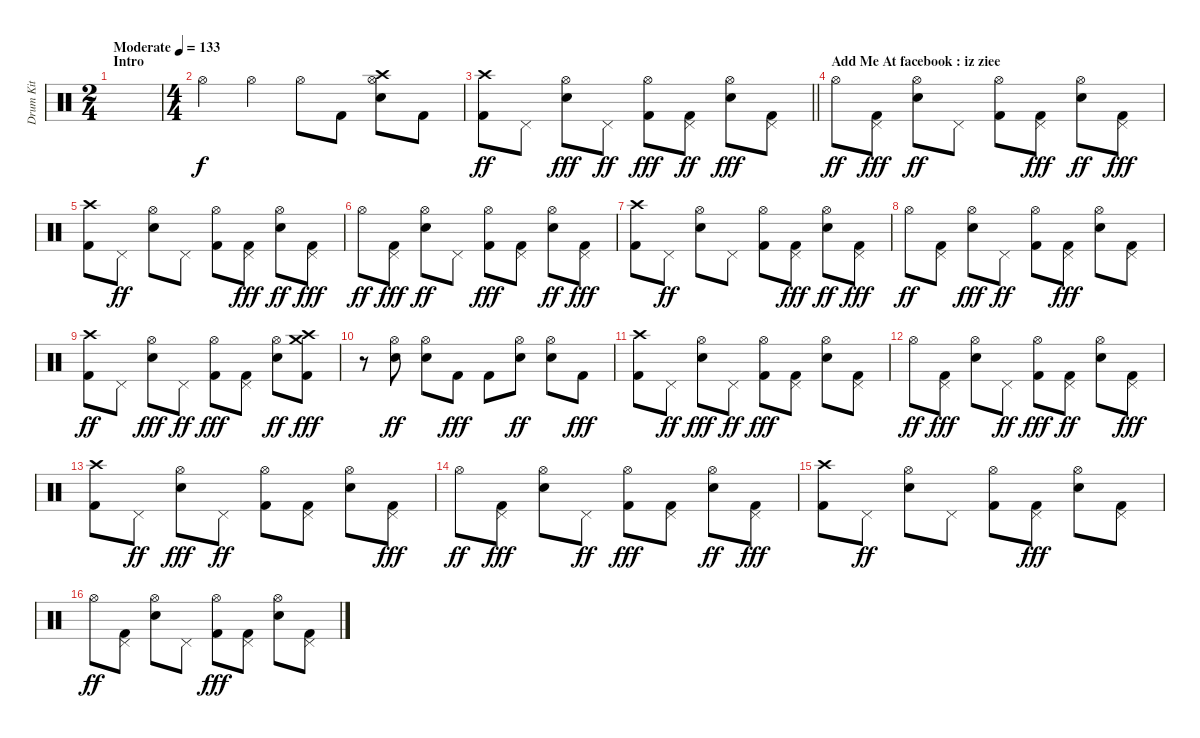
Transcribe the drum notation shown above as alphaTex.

\track ("Drum Kit" "Drum Kit") {instrument percussion}
\staff {score}
\articulation defaults
\ts (2 4)
\section ("" "Intro")
\tempo (133 "Moderate")
\clef neutral
\ks c
|
\ts (4 4)
"Hi-Hat (open)".4 "Hi-Hat (open)".4 "Hi-Hat (open)".8 "Kick (hit) 2".8 ("Hi-Hat (open)" "Electric Snare (hit)" "Crash high (hit)").8 "Kick (hit) 2".8 |
\barLineRight lightlight
("Kick (hit) 2" "Crash high (hit)").8{dy ff} "Pedal Hi-Hat (hit)".8 ("Hi-Hat (open)" "Electric Snare (hit)").8{dy fff} "Pedal Hi-Hat (hit)".8{dy ff} ("Hi-Hat (open)" "Kick (hit) 2").8{dy fff} ("Kick (hit) 2" "Pedal Hi-Hat (hit)").8{dy ff} ("Hi-Hat (open)" "Electric Snare (hit)").8{dy fff} ("Pedal Hi-Hat (hit)" "Kick (hit) 2").8 |
\section ("" "Add Me At facebook : iz ziee")
"Hi-Hat (open)".8{dy ff} ("Pedal Hi-Hat (hit)" "Kick (hit) 2").8{dy fff} ("Electric Snare (hit)" "Hi-Hat (open)").8{dy ff} "Pedal Hi-Hat (hit)".8 ("Kick (hit) 2" "Hi-Hat (open)").8 ("Pedal Hi-Hat (hit)" "Kick (hit) 2").8{dy fff} ("Electric Snare (hit)" "Hi-Hat (open)").8{dy ff} ("Pedal Hi-Hat (hit)" "Kick (hit) 2").8{dy fff} |
("Crash high (hit)" "Kick (hit) 2").8 "Pedal Hi-Hat (hit)".8{dy ff} ("Electric Snare (hit)" "Hi-Hat (open)").8 "Pedal Hi-Hat (hit)".8 ("Kick (hit) 2" "Hi-Hat (open)").8 ("Pedal Hi-Hat (hit)" "Kick (hit) 2").8{dy fff} ("Electric Snare (hit)" "Hi-Hat (open)").8{dy ff} ("Pedal Hi-Hat (hit)" "Kick (hit) 2").8{dy fff} |
"Hi-Hat (open)".8{dy ff} ("Pedal Hi-Hat (hit)" "Kick (hit) 2").8{dy fff} ("Electric Snare (hit)" "Hi-Hat (open)").8{dy ff} "Pedal Hi-Hat (hit)".8 ("Hi-Hat (open)" "Kick (hit) 2").8{dy fff} ("Pedal Hi-Hat (hit)" "Kick (hit) 2").8 ("Electric Snare (hit)" "Hi-Hat (open)").8{dy ff} ("Pedal Hi-Hat (hit)" "Kick (hit) 2").8{dy fff} |
("Crash high (hit)" "Kick (hit) 2").8 "Pedal Hi-Hat (hit)".8{dy ff} ("Electric Snare (hit)" "Hi-Hat (open)").8 "Pedal Hi-Hat (hit)".8 ("Kick (hit) 2" "Hi-Hat (open)").8 ("Pedal Hi-Hat (hit)" "Kick (hit) 2").8{dy fff} ("Electric Snare (hit)" "Hi-Hat (open)").8{dy ff} ("Pedal Hi-Hat (hit)" "Kick (hit) 2").8{dy fff} |
"Hi-Hat (open)".8{dy ff} ("Kick (hit) 2" "Pedal Hi-Hat (hit)").8 ("Hi-Hat (open)" "Electric Snare (hit)").8{dy fff} "Pedal Hi-Hat (hit)".8{dy ff} ("Kick (hit) 2" "Hi-Hat (open)").8 ("Pedal Hi-Hat (hit)" "Kick (hit) 2").8{dy fff} ("Hi-Hat (open)" "Electric Snare (hit)").8 ("Pedal Hi-Hat (hit)" "Kick (hit) 2").8 |
("Kick (hit) 2" "Crash high (hit)").8{dy ff} "Pedal Hi-Hat (hit)".8 ("Hi-Hat (open)" "Electric Snare (hit)").8{dy fff} "Pedal Hi-Hat (hit)".8{dy ff} ("Hi-Hat (open)" "Kick (hit) 2").8{dy fff} ("Pedal Hi-Hat (hit)" "Kick (hit) 2").8 ("Electric Snare (hit)" "Hi-Hat (open)").8{dy ff} ("Crash medium (hit)" "Crash high (hit)" "Kick (hit) 2").8{dy fff} |
r.8 ("Electric Snare (hit)" "Hi-Hat (open)").8{dy ff} ("Electric Snare (hit)" "Hi-Hat (open)").8 "Kick (hit) 2".8{dy fff} "Kick (hit) 2".8 ("Electric Snare (hit)" "Hi-Hat (open)").8{dy ff} ("Electric Snare (hit)" "Hi-Hat (open)").8 "Kick (hit) 2".8{dy fff} |
("Crash high (hit)" "Kick (hit) 2").8 "Pedal Hi-Hat (hit)".8{dy ff} ("Hi-Hat (open)" "Electric Snare (hit)").8{dy fff} "Pedal Hi-Hat (hit)".8{dy ff} ("Hi-Hat (open)" "Kick (hit) 2").8{dy fff} ("Pedal Hi-Hat (hit)" "Kick (hit) 2").8 ("Hi-Hat (open)" "Electric Snare (hit)").8 ("Pedal Hi-Hat (hit)" "Kick (hit) 2").8 |
"Hi-Hat (open)".8{dy ff} ("Pedal Hi-Hat (hit)" "Kick (hit) 2").8{dy fff} ("Hi-Hat (open)" "Electric Snare (hit)").8 "Pedal Hi-Hat (hit)".8{dy ff} ("Hi-Hat (open)" "Kick (hit) 2").8{dy fff} ("Kick (hit) 2" "Pedal Hi-Hat (hit)").8{dy ff} ("Electric Snare (hit)" "Hi-Hat (open)").8 ("Pedal Hi-Hat (hit)" "Kick (hit) 2").8{dy fff} |
("Crash high (hit)" "Kick (hit) 2").8 "Pedal Hi-Hat (hit)".8{dy ff} ("Hi-Hat (open)" "Electric Snare (hit)").8{dy fff} "Pedal Hi-Hat (hit)".8{dy ff} ("Kick (hit) 2" "Hi-Hat (open)").8 ("Kick (hit) 2" "Pedal Hi-Hat (hit)").8 ("Electric Snare (hit)" "Hi-Hat (open)").8 ("Pedal Hi-Hat (hit)" "Kick (hit) 2").8{dy fff} |
"Hi-Hat (open)".8{dy ff} ("Pedal Hi-Hat (hit)" "Kick (hit) 2").8{dy fff} ("Hi-Hat (open)" "Electric Snare (hit)").8 "Pedal Hi-Hat (hit)".8{dy ff} ("Hi-Hat (open)" "Kick (hit) 2").8{dy fff} ("Pedal Hi-Hat (hit)" "Kick (hit) 2").8 ("Electric Snare (hit)" "Hi-Hat (open)").8{dy ff} ("Pedal Hi-Hat (hit)" "Kick (hit) 2").8{dy fff} |
("Crash high (hit)" "Kick (hit) 2").8 "Pedal Hi-Hat (hit)".8{dy ff} ("Electric Snare (hit)" "Hi-Hat (open)").8 "Pedal Hi-Hat (hit)".8 ("Kick (hit) 2" "Hi-Hat (open)").8 ("Pedal Hi-Hat (hit)" "Kick (hit) 2").8{dy fff} ("Hi-Hat (open)" "Electric Snare (hit)").8 ("Pedal Hi-Hat (hit)" "Kick (hit) 2").8 |
"Hi-Hat (open)".8{dy ff} ("Kick (hit) 2" "Pedal Hi-Hat (hit)").8 ("Electric Snare (hit)" "Hi-Hat (open)").8 "Pedal Hi-Hat (hit)".8 ("Hi-Hat (open)" "Kick (hit) 2").8{dy fff} ("Pedal Hi-Hat (hit)" "Kick (hit) 2").8 ("Hi-Hat (open)" "Electric Snare (hit)").8 ("Pedal Hi-Hat (hit)" "Kick (hit) 2").8
